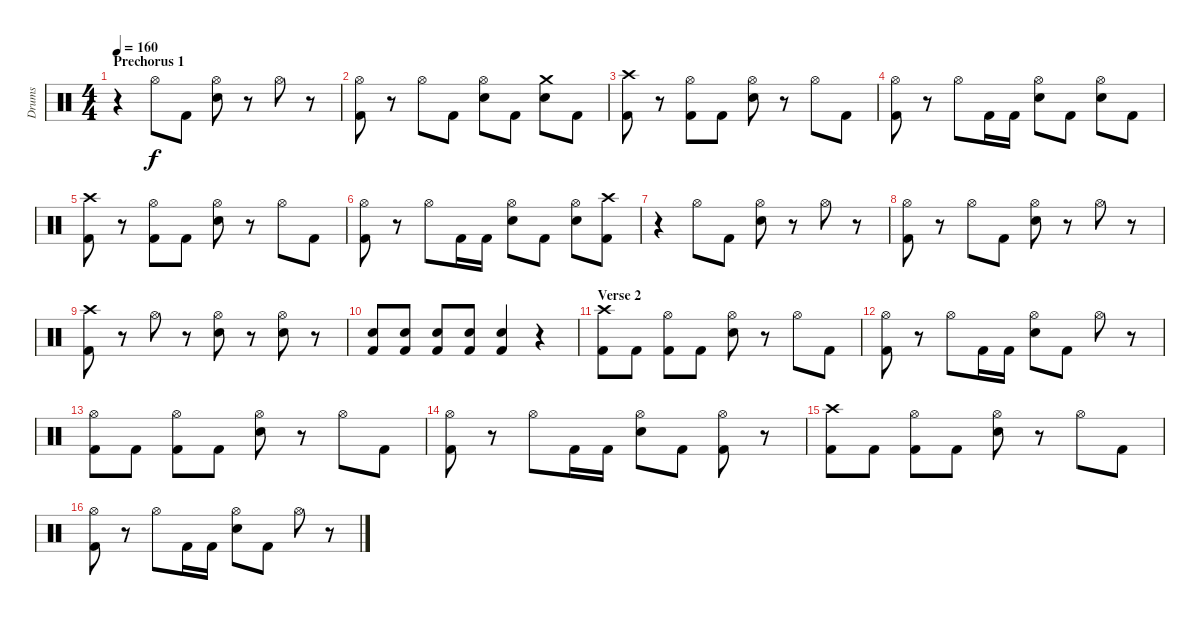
\track ("Drums" "Drums") {instrument percussion}
\staff {score}
\articulation defaults
\ts (4 4)
\section ("" "Prechorus 1")
\tempo 160
\clef neutral
\ks c
r.4{dy f} "Hi-Hat (open)".8 "Kick (hit) 2".8 ("Hi-Hat (open)" "Snare (hit) 2").8 r.8 "Hi-Hat (open)".8 r.8 |
("Hi-Hat (open)" "Kick (hit) 2").8 r.8 "Hi-Hat (open)".8 "Kick (hit) 2".8 ("Hi-Hat (open)" "Snare (hit) 2").8 "Kick (hit) 2".8 ("Crash medium (hit)" "Snare (hit) 2").8 "Kick (hit) 2".8 |
("Crash high (hit)" "Kick (hit) 2").8 r.8 ("Hi-Hat (open)" "Kick (hit) 2").8 "Kick (hit) 2".8 ("Hi-Hat (open)" "Snare (hit) 2").8 r.8 "Hi-Hat (open)".8 "Kick (hit) 2".8 |
("Hi-Hat (open)" "Kick (hit) 2").8 r.8 "Hi-Hat (open)".8 "Kick (hit) 2".16 "Kick (hit) 2".16 ("Hi-Hat (open)" "Snare (hit) 2").8 "Kick (hit) 2".8 ("Hi-Hat (open)" "Snare (hit) 2").8 "Kick (hit) 2".8 |
("Crash high (hit)" "Kick (hit) 2").8 r.8 ("Hi-Hat (open)" "Kick (hit) 2").8 "Kick (hit) 2".8 ("Hi-Hat (open)" "Snare (hit) 2").8 r.8 "Hi-Hat (open)".8 "Kick (hit) 2".8 |
("Hi-Hat (open)" "Kick (hit) 2").8 r.8 "Hi-Hat (open)".8 "Kick (hit) 2".16 "Kick (hit) 2".16 ("Hi-Hat (open)" "Snare (hit) 2").8 "Kick (hit) 2".8 ("Hi-Hat (open)" "Snare (hit) 2").8 ("Crash high (hit)" "Kick (hit) 2").8 |
r.4 "Hi-Hat (open)".8 "Kick (hit) 2".8 ("Hi-Hat (open)" "Snare (hit) 2").8 r.8 "Hi-Hat (open)".8 r.8 |
("Hi-Hat (open)" "Kick (hit) 2").8 r.8 "Hi-Hat (open)".8 "Kick (hit) 2".8 ("Hi-Hat (open)" "Snare (hit) 2").8 r.8 "Hi-Hat (open)".8 r.8 |
("Crash high (hit)" "Kick (hit) 2").8 r.8 "Hi-Hat (open)".8 r.8 ("Hi-Hat (open)" "Snare (hit) 2").8 r.8 ("Hi-Hat (open)" "Snare (hit) 2").8 r.8 |
("Snare (hit) 2" "Kick (hit) 2").8 ("Snare (hit) 2" "Kick (hit) 2").8 ("Snare (hit) 2" "Kick (hit) 2").8 ("Snare (hit) 2" "Kick (hit) 2").8 ("Snare (hit) 2" "Kick (hit) 2").4 r.4 |
\section ("" "Verse 2")
("Crash high (hit)" "Kick (hit) 2").8 "Kick (hit) 2".8 ("Hi-Hat (open)" "Kick (hit) 2").8 "Kick (hit) 2".8 ("Hi-Hat (open)" "Snare (hit) 2").8 r.8 "Hi-Hat (open)".8 "Kick (hit) 2".8 |
("Hi-Hat (open)" "Kick (hit) 2").8 r.8 "Hi-Hat (open)".8 "Kick (hit) 2".16 "Kick (hit) 2".16 ("Hi-Hat (open)" "Snare (hit) 2").8 "Kick (hit) 2".8 "Hi-Hat (open)".8 r.8 |
("Hi-Hat (open)" "Kick (hit) 2").8 "Kick (hit) 2".8 ("Hi-Hat (open)" "Kick (hit) 2").8 "Kick (hit) 2".8 ("Hi-Hat (open)" "Snare (hit) 2").8 r.8 "Hi-Hat (open)".8 "Kick (hit) 2".8 |
("Hi-Hat (open)" "Kick (hit) 2").8 r.8 "Hi-Hat (open)".8 "Kick (hit) 2".16 "Kick (hit) 2".16 ("Hi-Hat (open)" "Snare (hit) 2").8 "Kick (hit) 2".8 ("Hi-Hat (open)" "Kick (hit) 2").8 r.8 |
("Crash high (hit)" "Kick (hit) 2").8 "Kick (hit) 2".8 ("Hi-Hat (open)" "Kick (hit) 2").8 "Kick (hit) 2".8 ("Hi-Hat (open)" "Snare (hit) 2").8 r.8 "Hi-Hat (open)".8 "Kick (hit) 2".8 |
("Hi-Hat (open)" "Kick (hit) 2").8 r.8 "Hi-Hat (open)".8 "Kick (hit) 2".16 "Kick (hit) 2".16 ("Hi-Hat (open)" "Snare (hit) 2").8 "Kick (hit) 2".8 "Hi-Hat (open)".8 r.8
